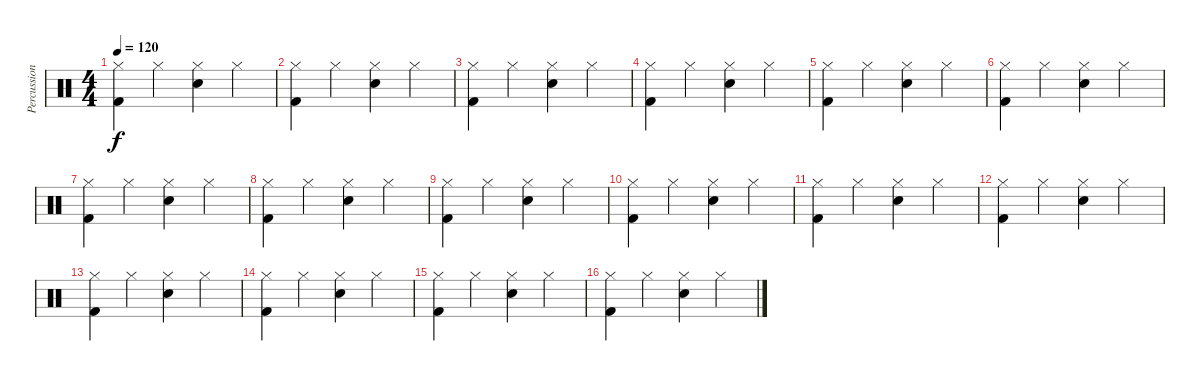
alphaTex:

\track ("Percussion" "Percussion") {instrument percussion}
\staff {score}
\articulation defaults
\ts (4 4)
\tempo 120
\clef neutral
\ks c
("Kick (hit) 2" "Hi-Hat (closed)").4{dy f} "Hi-Hat (closed)".4 ("Snare (hit) 2" "Hi-Hat (closed)").4 "Hi-Hat (closed)".4 |
("Kick (hit) 2" "Hi-Hat (closed)").4 "Hi-Hat (closed)".4 ("Snare (hit) 2" "Hi-Hat (closed)").4 "Hi-Hat (closed)".4 |
("Kick (hit) 2" "Hi-Hat (closed)").4 "Hi-Hat (closed)".4 ("Snare (hit) 2" "Hi-Hat (closed)").4 "Hi-Hat (closed)".4 |
("Kick (hit) 2" "Hi-Hat (closed)").4 "Hi-Hat (closed)".4 ("Snare (hit) 2" "Hi-Hat (closed)").4 "Hi-Hat (closed)".4 |
("Kick (hit) 2" "Hi-Hat (closed)").4 "Hi-Hat (closed)".4 ("Snare (hit) 2" "Hi-Hat (closed)").4 "Hi-Hat (closed)".4 |
("Kick (hit) 2" "Hi-Hat (closed)").4 "Hi-Hat (closed)".4 ("Snare (hit) 2" "Hi-Hat (closed)").4 "Hi-Hat (closed)".4 |
("Kick (hit) 2" "Hi-Hat (closed)").4 "Hi-Hat (closed)".4 ("Snare (hit) 2" "Hi-Hat (closed)").4 "Hi-Hat (closed)".4 |
("Kick (hit) 2" "Hi-Hat (closed)").4 "Hi-Hat (closed)".4 ("Snare (hit) 2" "Hi-Hat (closed)").4 "Hi-Hat (closed)".4 |
("Kick (hit) 2" "Hi-Hat (closed)").4 "Hi-Hat (closed)".4 ("Snare (hit) 2" "Hi-Hat (closed)").4 "Hi-Hat (closed)".4 |
("Kick (hit) 2" "Hi-Hat (closed)").4 "Hi-Hat (closed)".4 ("Snare (hit) 2" "Hi-Hat (closed)").4 "Hi-Hat (closed)".4 |
("Kick (hit) 2" "Hi-Hat (closed)").4 "Hi-Hat (closed)".4 ("Snare (hit) 2" "Hi-Hat (closed)").4 "Hi-Hat (closed)".4 |
("Kick (hit) 2" "Hi-Hat (closed)").4 "Hi-Hat (closed)".4 ("Snare (hit) 2" "Hi-Hat (closed)").4 "Hi-Hat (closed)".4 |
("Kick (hit) 2" "Hi-Hat (closed)").4 "Hi-Hat (closed)".4 ("Snare (hit) 2" "Hi-Hat (closed)").4 "Hi-Hat (closed)".4 |
("Kick (hit) 2" "Hi-Hat (closed)").4 "Hi-Hat (closed)".4 ("Snare (hit) 2" "Hi-Hat (closed)").4 "Hi-Hat (closed)".4 |
("Kick (hit) 2" "Hi-Hat (closed)").4 "Hi-Hat (closed)".4 ("Snare (hit) 2" "Hi-Hat (closed)").4 "Hi-Hat (closed)".4 |
("Kick (hit) 2" "Hi-Hat (closed)").4 "Hi-Hat (closed)".4 ("Snare (hit) 2" "Hi-Hat (closed)").4 "Hi-Hat (closed)".4
